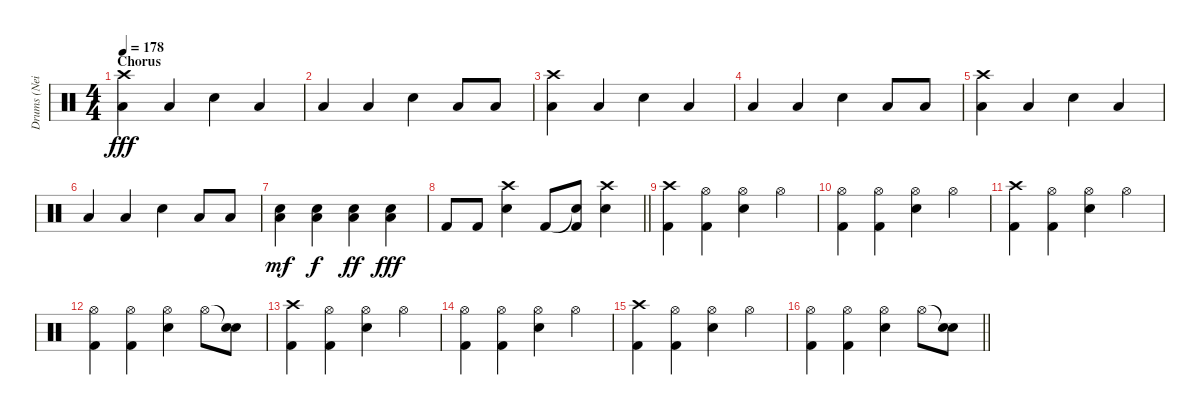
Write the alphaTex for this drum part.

\track ("Drums (Neil Sanderson)" "Drums (Nei") {instrument percussion}
\staff {score}
\articulation defaults
\ts (4 4)
\section ("" "Chorus")
\tempo 178
\clef neutral
\ks c
("Crash high (hit)" "Low Floor Tom (hit)").4{dy fff} "Low Floor Tom (hit)".4 "Snare (hit) 2".4 "Low Floor Tom (hit)".4 |
"Low Floor Tom (hit)".4 "Low Floor Tom (hit)".4 "Snare (hit) 2".4 "Low Floor Tom (hit)".8 "Low Floor Tom (hit)".8 |
("Crash high (hit)" "Low Floor Tom (hit)").4 "Low Floor Tom (hit)".4 "Snare (hit) 2".4 "Low Floor Tom (hit)".4 |
"Low Floor Tom (hit)".4 "Low Floor Tom (hit)".4 "Snare (hit) 2".4 "Low Floor Tom (hit)".8 "Low Floor Tom (hit)".8 |
("Crash high (hit)" "Low Floor Tom (hit)").4 "Low Floor Tom (hit)".4 "Snare (hit) 2".4 "Low Floor Tom (hit)".4 |
"Low Floor Tom (hit)".4 "Low Floor Tom (hit)".4 "Snare (hit) 2".4 "Low Floor Tom (hit)".8 "Low Floor Tom (hit)".8 |
("Snare (hit) 2" "Low Floor Tom (hit)").4{dy mf} ("Snare (hit) 2" "Low Floor Tom (hit)").4{dy f} ("Snare (hit) 2" "Low Floor Tom (hit)").4{dy ff} ("Snare (hit) 2" "Low Floor Tom (hit)").4{dy fff} |
\barLineRight lightlight "Kick (hit) 2".8 "Kick (hit) 2".8
("Crash high (hit)" "Snare (hit) 2").4 "Kick (hit) 2".8 ("Snare (hit)"{t} "Kick (hit) 2").8 ("Crash high (hit)" "Snare (hit) 2").4 |
("Crash high (hit)" "Kick (hit) 2").4 ("Hi-Hat (open)" "Kick (hit) 2").4 ("Hi-Hat (open)" "Snare (hit) 2").4 "Hi-Hat (open)".4 |
("Hi-Hat (open)" "Kick (hit) 2").4 ("Hi-Hat (open)" "Kick (hit) 2").4 ("Hi-Hat (open)" "Snare (hit) 2").4 "Hi-Hat (open)".4 |
("Crash high (hit)" "Kick (hit) 2").4 ("Hi-Hat (open)" "Kick (hit) 2").4 ("Hi-Hat (open)" "Snare (hit) 2").4 "Hi-Hat (open)".4 |
("Hi-Hat (open)" "Kick (hit) 2").4 ("Hi-Hat (open)" "Kick (hit) 2").4 ("Hi-Hat (open)" "Snare (hit) 2").4 "Hi-Hat (open)".8 ("Snare (hit)"{t} "Snare (hit) 2").8 |
("Crash high (hit)" "Kick (hit) 2").4 ("Hi-Hat (open)" "Kick (hit) 2").4 ("Hi-Hat (open)" "Snare (hit) 2").4 "Hi-Hat (open)".4 |
("Hi-Hat (open)" "Kick (hit) 2").4 ("Hi-Hat (open)" "Kick (hit) 2").4 ("Hi-Hat (open)" "Snare (hit) 2").4 "Hi-Hat (open)".4 |
("Crash high (hit)" "Kick (hit) 2").4 ("Hi-Hat (open)" "Kick (hit) 2").4 ("Hi-Hat (open)" "Snare (hit) 2").4 "Hi-Hat (open)".4 |
\barLineRight lightlight
("Hi-Hat (open)" "Kick (hit) 2").4 ("Hi-Hat (open)" "Kick (hit) 2").4 ("Hi-Hat (open)" "Snare (hit) 2").4 "Hi-Hat (open)".8 ("Snare (hit)"{t} "Snare (hit) 2").8
